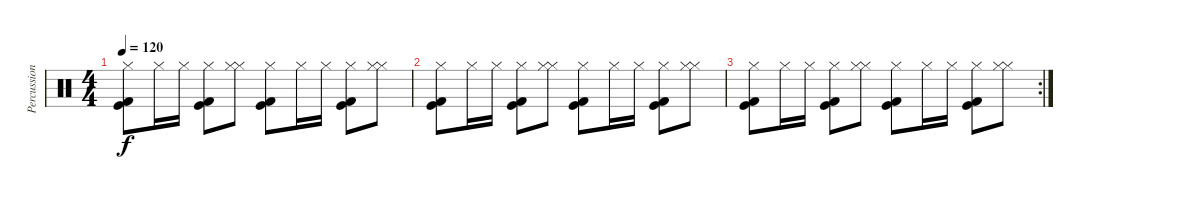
\track ("Percussions" "Percussion") {instrument percussion}
\staff {score}
\articulation defaults
\ts (4 4)
\tempo 120
\clef neutral
\ks c
("Kick (hit) 2" "Kick (hit)" "Hi-Hat (closed)").8{dy f} "Hi-Hat (closed)".16 "Hi-Hat (closed)".16 ("Kick (hit) 2" "Kick (hit)" "Hi-Hat (closed)").8 ("Hi-Hat (closed)" "Hi-Hat (closed)").8 ("Kick (hit) 2" "Kick (hit)" "Hi-Hat (closed)").8 "Hi-Hat (closed)".16 "Hi-Hat (closed)".16 ("Kick (hit) 2" "Kick (hit)" "Hi-Hat (closed)").8 ("Hi-Hat (closed)" "Hi-Hat (closed)").8 |
("Kick (hit) 2" "Kick (hit)" "Hi-Hat (closed)").8 "Hi-Hat (closed)".16 "Hi-Hat (closed)".16 ("Kick (hit) 2" "Kick (hit)" "Hi-Hat (closed)").8 ("Hi-Hat (closed)" "Hi-Hat (closed)").8 ("Kick (hit) 2" "Kick (hit)" "Hi-Hat (closed)").8 "Hi-Hat (closed)".16 "Hi-Hat (closed)".16 ("Kick (hit) 2" "Kick (hit)" "Hi-Hat (closed)").8 ("Hi-Hat (closed)" "Hi-Hat (closed)").8 |
\rc 2
("Kick (hit) 2" "Kick (hit)" "Hi-Hat (closed)").8 "Hi-Hat (closed)".16 "Hi-Hat (closed)".16 ("Kick (hit) 2" "Kick (hit)" "Hi-Hat (closed)").8 ("Hi-Hat (closed)" "Hi-Hat (closed)").8 ("Kick (hit) 2" "Kick (hit)" "Hi-Hat (closed)").8 "Hi-Hat (closed)".16 "Hi-Hat (closed)".16 ("Kick (hit) 2" "Kick (hit)" "Hi-Hat (closed)").8 ("Hi-Hat (closed)" "Hi-Hat (closed)").8
